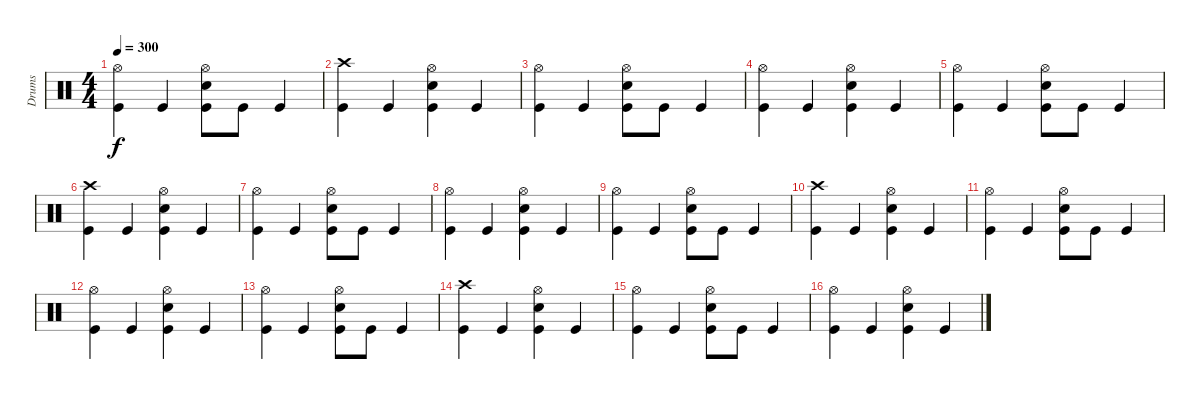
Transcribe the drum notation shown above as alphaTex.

\track ("Drums" "Drums") {instrument percussion}
\staff {score}
\articulation defaults
\ts (4 4)
\tempo 300
\clef neutral
\ks c
("Hi-Hat (open)" "Kick (hit)").4{dy f} "Kick (hit)".4 ("Hi-Hat (open)" "Electric Snare (hit)" "Kick (hit)").8 "Kick (hit)".8 "Kick (hit)".4 |
("Crash high (hit)" "Kick (hit)").4 "Kick (hit)".4 ("Hi-Hat (open)" "Electric Snare (hit)" "Kick (hit)").4 "Kick (hit)".4 |
("Hi-Hat (open)" "Kick (hit)").4 "Kick (hit)".4 ("Hi-Hat (open)" "Electric Snare (hit)" "Kick (hit)").8 "Kick (hit)".8 "Kick (hit)".4 |
("Hi-Hat (open)" "Kick (hit)").4 "Kick (hit)".4 ("Hi-Hat (open)" "Electric Snare (hit)" "Kick (hit)").4 "Kick (hit)".4 |
("Hi-Hat (open)" "Kick (hit)").4 "Kick (hit)".4 ("Hi-Hat (open)" "Electric Snare (hit)" "Kick (hit)").8 "Kick (hit)".8 "Kick (hit)".4 |
("Crash high (hit)" "Kick (hit)").4 "Kick (hit)".4 ("Hi-Hat (open)" "Electric Snare (hit)" "Kick (hit)").4 "Kick (hit)".4 |
("Hi-Hat (open)" "Kick (hit)").4 "Kick (hit)".4 ("Hi-Hat (open)" "Electric Snare (hit)" "Kick (hit)").8 "Kick (hit)".8 "Kick (hit)".4 |
("Hi-Hat (open)" "Kick (hit)").4 "Kick (hit)".4 ("Hi-Hat (open)" "Electric Snare (hit)" "Kick (hit)").4 "Kick (hit)".4 |
("Hi-Hat (open)" "Kick (hit)").4 "Kick (hit)".4 ("Hi-Hat (open)" "Electric Snare (hit)" "Kick (hit)").8 "Kick (hit)".8 "Kick (hit)".4 |
("Crash high (hit)" "Kick (hit)").4 "Kick (hit)".4 ("Hi-Hat (open)" "Electric Snare (hit)" "Kick (hit)").4 "Kick (hit)".4 |
("Hi-Hat (open)" "Kick (hit)").4 "Kick (hit)".4 ("Hi-Hat (open)" "Electric Snare (hit)" "Kick (hit)").8 "Kick (hit)".8 "Kick (hit)".4 |
("Hi-Hat (open)" "Kick (hit)").4 "Kick (hit)".4 ("Hi-Hat (open)" "Electric Snare (hit)" "Kick (hit)").4 "Kick (hit)".4 |
("Hi-Hat (open)" "Kick (hit)").4 "Kick (hit)".4 ("Hi-Hat (open)" "Electric Snare (hit)" "Kick (hit)").8 "Kick (hit)".8 "Kick (hit)".4 |
("Crash high (hit)" "Kick (hit)").4 "Kick (hit)".4 ("Hi-Hat (open)" "Electric Snare (hit)" "Kick (hit)").4 "Kick (hit)".4 |
("Hi-Hat (open)" "Kick (hit)").4 "Kick (hit)".4 ("Hi-Hat (open)" "Electric Snare (hit)" "Kick (hit)").8 "Kick (hit)".8 "Kick (hit)".4 |
("Hi-Hat (open)" "Kick (hit)").4 "Kick (hit)".4 ("Hi-Hat (open)" "Electric Snare (hit)" "Kick (hit)").4 "Kick (hit)".4
